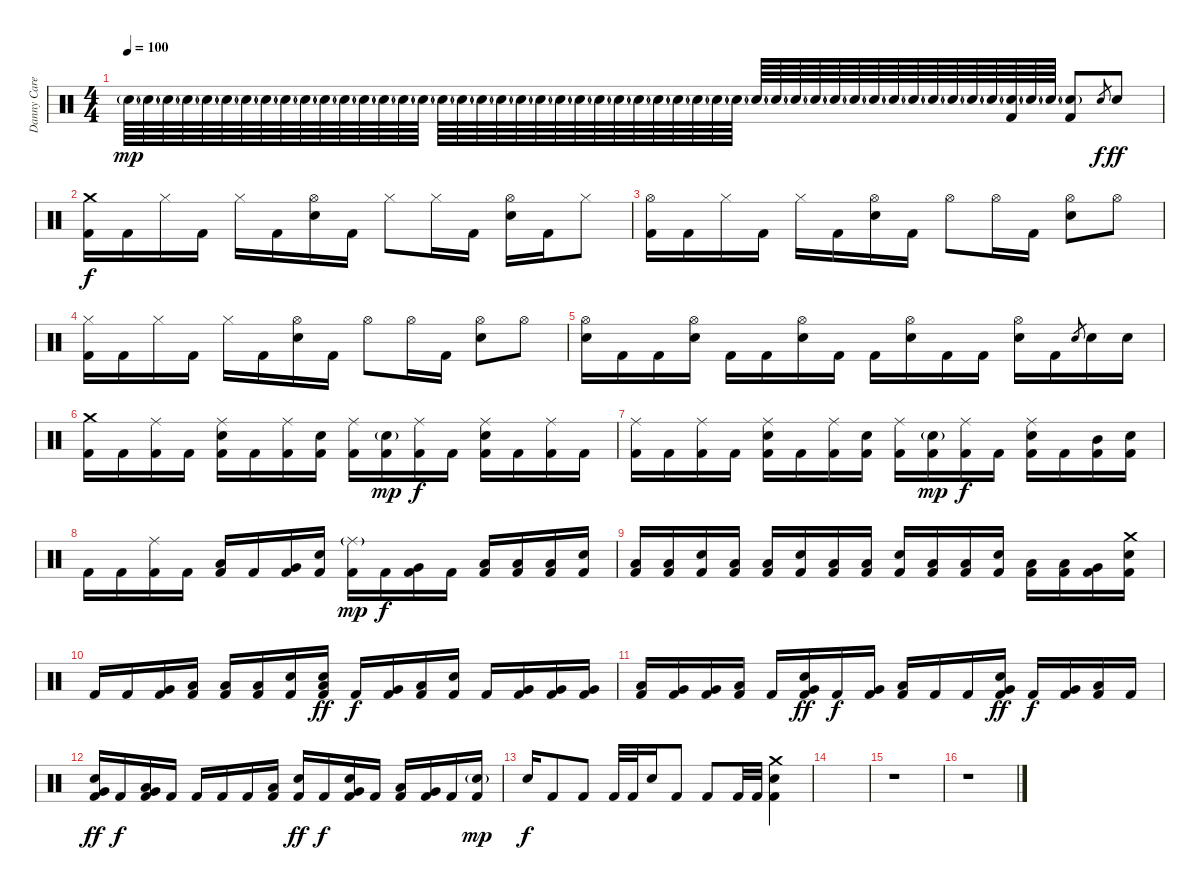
\track ("Danny Carey" "Danny Care") {instrument percussion}
\staff {score}
\articulation defaults
\ts (4 4)
\tempo 100
\clef neutral
\ks c "Snare (hit) 2"{g}.64{dy mp} "Snare (hit) 2"{g}.64 "Snare (hit) 2"{g}.64 "Snare (hit) 2"{g}.64 "Snare (hit) 2"{g}.64 "Snare (hit) 2"{g}.64 "Snare (hit) 2"{g}.64 "Snare (hit) 2"{g}.64 "Snare (hit) 2"{g}.64 "Snare (hit) 2"{g}.64 "Snare (hit) 2"{g}.64 "Snare (hit) 2"{g}.64 "Snare (hit) 2"{g}.64 "Snare (hit) 2"{g}.64 "Snare (hit) 2"{g}.64 "Snare (hit) 2"{g}.64 "Snare (hit) 2"{g}.64 "Snare (hit) 2"{g}.64 "Snare (hit) 2"{g}.64 "Snare (hit) 2"{g}.64 "Snare (hit) 2"{g}.64 "Snare (hit) 2"{g}.64 "Snare (hit) 2"{g}.64 "Snare (hit) 2"{g}.64 "Snare (hit) 2"{g}.64 "Snare (hit) 2"{g}.64 "Snare (hit) 2"{g}.64 "Snare (hit) 2"{g}.64 "Snare (hit) 2"{g}.64 "Snare (hit) 2"{g}.64 "Snare (hit) 2"{g}.64 "Snare (hit) 2"{g}.64 "Snare (hit) 2"{g}.64 "Snare (hit) 2"{g}.64 "Snare (hit) 2"{g}.64 "Snare (hit) 2"{g}.64 "Snare (hit) 2"{g}.64 "Snare (hit) 2"{g}.64 "Snare (hit) 2"{g}.64 "Snare (hit) 2"{g}.64 "Snare (hit) 2"{g}.64 "Snare (hit) 2"{g}.64 "Snare (hit) 2"{g}.64 "Snare (hit) 2"{g}.64 "Snare (hit) 2"{g}.64
("Snare (hit) 2"{g} "Kick (hit) 2").64 "Snare (hit) 2"{g}.64 "Snare (hit) 2"{g}.64 ("Snare (hit) 2"{g} "Kick (hit) 2").8 "Snare (hit) 2".8{gr dy f} "Snare (hit) 2".8{dy ff} |
("Crash medium (hit)" "Kick (hit) 2").16{dy f} "Kick (hit) 2".16 "Hi-Hat (closed)".16 "Kick (hit) 2".16 "Hi-Hat (closed)".16 "Kick (hit) 2".16 ("Hi-Hat (open)" "Snare (hit) 2").16 "Kick (hit) 2".16 "Hi-Hat (closed)".8 "Hi-Hat (closed)".16 "Kick (hit) 2".16 ("Hi-Hat (open)" "Snare (hit) 2").16 "Kick (hit) 2".16 "Hi-Hat (closed)".8 |
("Hi-Hat (open)" "Kick (hit) 2").16 "Kick (hit) 2".16 "Hi-Hat (closed)".16 "Kick (hit) 2".16 "Hi-Hat (closed)".16 "Kick (hit) 2".16 ("Hi-Hat (open)" "Snare (hit) 2").16 "Kick (hit) 2".16 "Hi-Hat (open)".8 "Hi-Hat (open)".16 "Kick (hit) 2".16 ("Hi-Hat (open)" "Snare (hit) 2").8 "Hi-Hat (open)".8 |
("Hi-Hat (closed)" "Kick (hit) 2").16 "Kick (hit) 2".16 "Hi-Hat (closed)".16 "Kick (hit) 2".16 "Hi-Hat (closed)".16 "Kick (hit) 2".16 ("Hi-Hat (open)" "Snare (hit) 2").16 "Kick (hit) 2".16 "Hi-Hat (open)".8 "Hi-Hat (open)".16 "Kick (hit) 2".16 ("Hi-Hat (open)" "Snare (hit) 2").8 "Hi-Hat (open)".8 |
("Hi-Hat (open)" "Snare (hit) 2").16 "Kick (hit) 2".16 "Kick (hit) 2".16 ("Hi-Hat (open)" "Snare (hit) 2").16 "Kick (hit) 2".16 "Kick (hit) 2".16 ("Hi-Hat (open)" "Snare (hit) 2").16 "Kick (hit) 2".16 "Kick (hit) 2".16 ("Hi-Hat (open)" "Snare (hit) 2").16 "Kick (hit) 2".16 "Kick (hit) 2".16 ("Hi-Hat (open)" "Snare (hit) 2").16 "Kick (hit) 2".16 "Snare (hit) 2".8{gr} "Snare (hit) 2".16 "Snare (hit) 2".16 |
("Crash medium (hit)" "Kick (hit) 2").16 "Kick (hit) 2".16 ("Ride (middle)" "Kick (hit) 2").16 "Kick (hit) 2".16 ("Ride (middle)" "Snare (hit) 2" "Kick (hit) 2").16 "Kick (hit) 2".16 ("Ride (middle)" "Kick (hit) 2").16 ("Snare (hit) 2" "Kick (hit) 2").16 ("Ride (middle)" "Kick (hit) 2").16 ("Snare (hit) 2"{g} "Kick (hit) 2").16{dy mp} ("Ride (middle)" "Kick (hit) 2").16{dy f} "Kick (hit) 2".16 ("Ride (middle)" "Snare (hit) 2" "Kick (hit) 2").16 "Kick (hit) 2".16 ("Ride (middle)" "Kick (hit) 2").16 "Kick (hit) 2".16 |
("Ride (middle)" "Kick (hit) 2").16 "Kick (hit) 2".16 ("Ride (middle)" "Kick (hit) 2").16 "Kick (hit) 2".16 ("Ride (middle)" "Snare (hit) 2" "Kick (hit) 2").16 "Kick (hit) 2".16 ("Ride (middle)" "Kick (hit) 2").16 ("Snare (hit) 2" "Kick (hit) 2").16 ("Ride (middle)" "Kick (hit) 2").16 ("Snare (hit) 2"{g} "Kick (hit) 2").16{dy mp} ("Ride (middle)" "Kick (hit) 2").16{dy f} "Kick (hit) 2".16 ("Ride (middle)" "Snare (hit) 2" "Kick (hit) 2").16 "Kick (hit) 2".16 ("Mid Tom (hit)" "Kick (hit) 2").16 ("Snare (hit) 2" "Kick (hit) 2").16 |
"Kick (hit) 2".16 "Kick (hit) 2".16 ("Ride (middle)" "Kick (hit) 2").16 "Kick (hit) 2".16 ("Low Tom (hit)" "Kick (hit) 2").16 "Kick (hit) 2".16 ("Very Low Tom (hit)" "Kick (hit) 2").16 ("Snare (hit) 2" "Kick (hit) 2").16 ("Ride (middle)"{g} "Kick (hit) 2").16{dy mp} "Kick (hit) 2".16{dy f} ("Very Low Tom (hit)" "Kick (hit) 2").16 "Kick (hit) 2".16 ("Low Floor Tom (hit)" "Kick (hit) 2").16 ("Low Floor Tom (hit)" "Kick (hit) 2").16 ("Low Floor Tom (hit)" "Kick (hit) 2").16 ("Snare (hit) 2" "Kick (hit) 2").16 |
("Low Floor Tom (hit)" "Kick (hit) 2").16 ("Low Floor Tom (hit)" "Kick (hit) 2").16 ("Snare (hit) 2" "Kick (hit) 2").16 ("Low Floor Tom (hit)" "Kick (hit) 2").16 ("Low Floor Tom (hit)" "Kick (hit) 2").16 ("Snare (hit) 2" "Kick (hit) 2").16 ("Low Floor Tom (hit)" "Kick (hit) 2").16 ("Low Floor Tom (hit)" "Kick (hit) 2").16 ("Snare (hit) 2" "Kick (hit) 2").16 ("Low Floor Tom (hit)" "Kick (hit) 2").16 ("Low Floor Tom (hit)" "Kick (hit) 2").16 ("Snare (hit) 2" "Kick (hit) 2").16 ("Low Floor Tom (hit)" "Kick (hit) 2").16 ("Low Floor Tom (hit)" "Kick (hit) 2").16 ("Very Low Tom (hit)" "Kick (hit) 2").16 ("Crash medium (hit)" "Snare (hit) 2" "Kick (hit) 2").16 |
"Kick (hit) 2".16 "Kick (hit) 2".16 ("Very Low Tom (hit)" "Kick (hit) 2").16 ("Low Floor Tom (hit)" "Kick (hit) 2").16 ("Low Tom (hit)" "Kick (hit) 2").16 ("Low Floor Tom (hit)" "Kick (hit) 2").16 ("Snare (hit) 2" "Kick (hit) 2").16 ("Snare (hit) 2" "Low Floor Tom (hit)" "Kick (hit) 2").16{dy ff} "Kick (hit) 2".16{dy f} ("Very Low Tom (hit)" "Kick (hit) 2").16 ("Low Floor Tom (hit)" "Kick (hit) 2").16 ("Snare (hit) 2" "Kick (hit) 2").16 "Kick (hit) 2".16 ("Very Low Tom (hit)" "Kick (hit) 2").16 ("Very Low Tom (hit)" "Kick (hit) 2").16 ("Very Low Tom (hit)" "Kick (hit) 2").16 |
("Low Tom (hit)" "Kick (hit) 2").16 ("Very Low Tom (hit)" "Kick (hit) 2").16 ("Very Low Tom (hit)" "Kick (hit) 2").16 ("Low Floor Tom (hit)" "Kick (hit) 2").16 "Kick (hit) 2".16 ("Snare (hit) 2" "Very Low Tom (hit)" "Kick (hit) 2").16{dy ff} "Kick (hit) 2".16{dy f} ("Very Low Tom (hit)" "Kick (hit) 2").16 ("Low Tom (hit)" "Kick (hit) 2").16 "Kick (hit) 2".16 "Kick (hit) 2".16 ("Snare (hit) 2" "Very Low Tom (hit)" "Kick (hit) 2").16{dy ff} "Kick (hit) 2".16{dy f} ("Very Low Tom (hit)" "Kick (hit) 2").16 ("Low Tom (hit)" "Kick (hit) 2").16 "Kick (hit) 2".16 |
("Snare (hit) 2" "Very Low Tom (hit)" "Kick (hit) 2").16{dy ff} "Kick (hit) 2".16{dy f} ("Very Low Tom (hit)" "Low Floor Tom (hit)" "Kick (hit) 2").16 "Kick (hit) 2".16 "Kick (hit) 2".16 "Kick (hit) 2".16 "Kick (hit) 2".16 ("Low Floor Tom (hit)" "Kick (hit) 2").16 ("Snare (hit) 2" "Kick (hit) 2").16{dy ff} "Kick (hit) 2".16{dy f} ("Snare (hit) 2" "Very Low Tom (hit)" "Kick (hit) 2").16 "Kick (hit) 2".16 ("Low Floor Tom (hit)" "Kick (hit) 2").16 ("Very Low Tom (hit)" "Kick (hit) 2").16 "Kick (hit) 2".16 ("Snare (hit) 2"{g} "Kick (hit) 2").16{dy mp} |
"Snare (hit) 2".16{dy f} "Kick (hit) 2".8 "Kick (hit) 2".8 "Kick (hit) 2".32 "Kick (hit) 2".32 "Snare (hit) 2".16 "Kick (hit) 2".8 "Kick (hit) 2".8 "Kick (hit) 2".32 "Kick (hit) 2".32 ("Snare (hit) 2" "Kick (hit) 2" "Crash medium (hit)").4 |
|
r.1 |
r.1
